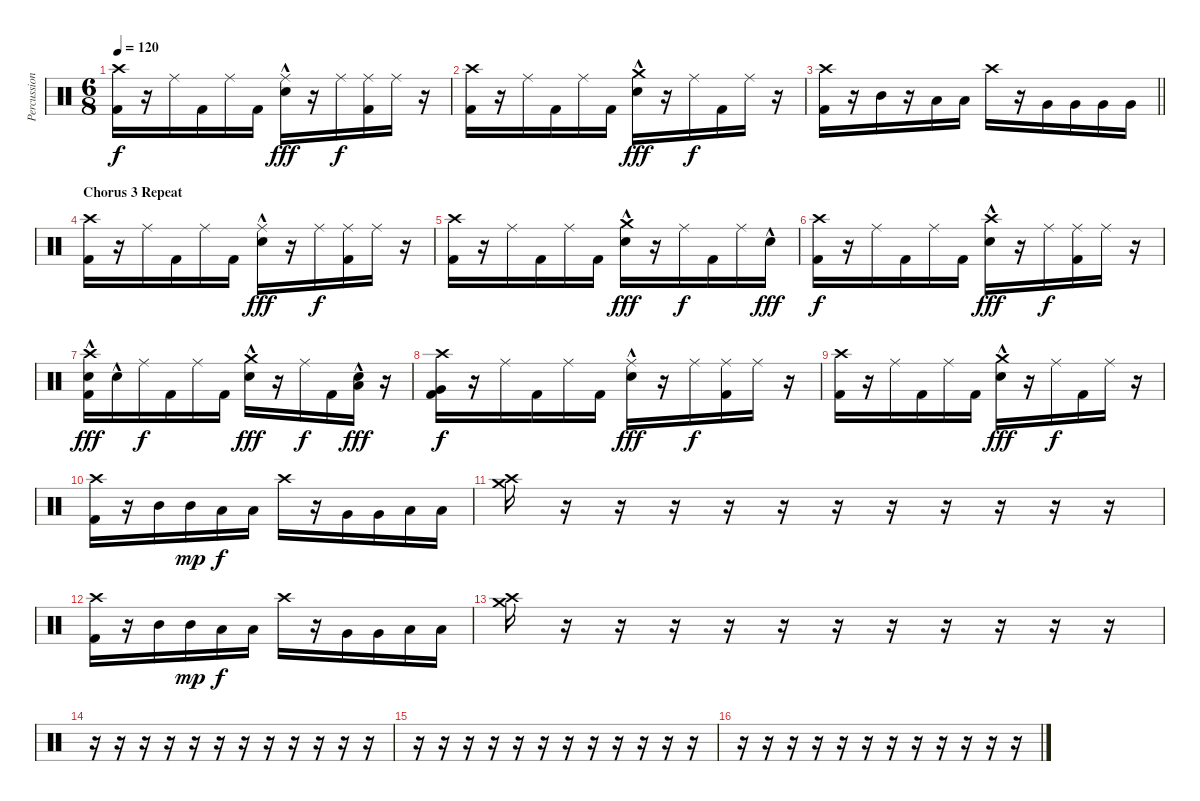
\track ("Percussion" "Percussion") {instrument percussion}
\staff {score}
\articulation defaults
\ts (6 8)
\tempo 120
\clef neutral
\ks c
("Kick (hit) 2" "Crash high (hit)").16{dy f} r.16 "Ride (middle)".16 "Kick (hit) 2".16 "Ride (middle)".16 "Kick (hit) 2".16 ("Snare (hit) 2"{hac} "Ride (middle)").16{dy fff} r.16 "Ride (middle)".16{dy f} ("Kick (hit) 2" "Ride (middle)").16 "Ride (middle)".16 r.16 |
("Kick (hit) 2" "Crash high (hit)").16 r.16 "Ride (middle)".16 "Kick (hit) 2".16 "Ride (middle)".16 "Kick (hit) 2".16 ("Snare (hit) 2"{hac} "Crash medium (hit)").16{dy fff} r.16 "Ride (middle)".16{dy f} "Kick (hit) 2".16 "Ride (middle)".16 r.16 |
\barLineRight lightlight
("Kick (hit) 2" "Crash high (hit)").16 r.16 "Mid Tom (hit)".16 r.16 "Low Tom (hit)".16 "Low Tom (hit)".16 "Crash high (hit)".16 r.16 "Very Low Tom (hit)".16 "Very Low Tom (hit)".16 "Very Low Tom (hit)".16 "Very Low Tom (hit)".16 |
\section ("" "Chorus 3 Repeat")
("Kick (hit) 2" "Crash high (hit)").16 r.16 "Ride (middle)".16 "Kick (hit) 2".16 "Ride (middle)".16 "Kick (hit) 2".16 ("Snare (hit) 2"{hac} "Ride (middle)").16{dy fff} r.16 "Ride (middle)".16{dy f} ("Kick (hit) 2" "Ride (middle)").16 "Ride (middle)".16 r.16 |
("Kick (hit) 2" "Crash high (hit)").16 r.16 "Ride (middle)".16 "Kick (hit) 2".16 "Ride (middle)".16 "Kick (hit) 2".16 ("Snare (hit) 2"{hac} "Crash medium (hit)").16{dy fff} r.16 "Ride (middle)".16{dy f} "Kick (hit) 2".16 "Ride (middle)".16 "Snare (hit) 2"{hac}.16{dy fff} |
("Kick (hit) 2" "Crash high (hit)").16{dy f} r.16 "Ride (middle)".16 "Kick (hit) 2".16 "Ride (middle)".16 "Kick (hit) 2".16 ("Snare (hit) 2"{hac} "Crash high (hit)").16{dy fff} r.16 "Ride (middle)".16{dy f} ("Kick (hit) 2" "Ride (middle)").16 "Ride (middle)".16 r.16 |
("Kick (hit) 2" "Snare (hit) 2"{hac} "Crash high (hit)").16{dy fff} "Snare (hit) 2"{hac}.16 "Ride (middle)".16{dy f} "Kick (hit) 2".16 "Ride (middle)".16 "Kick (hit) 2".16 ("Snare (hit) 2"{hac} "Crash medium (hit)").16{dy fff} r.16 "Ride (middle)".16{dy f} "Kick (hit) 2".16 ("Snare (hit) 2"{hac} "Low Tom (hit)"{hac}).16{dy fff} r.16 |
("Kick (hit) 2" "Very Low Tom (hit)" "Crash high (hit)").16{dy f} r.16 "Ride (middle)".16 "Kick (hit) 2".16 "Ride (middle)".16 "Kick (hit) 2".16 ("Snare (hit) 2"{hac} "Ride (middle)").16{dy fff} r.16 "Ride (middle)".16{dy f} ("Kick (hit) 2" "Ride (middle)").16 "Ride (middle)".16 r.16 |
("Kick (hit) 2" "Crash high (hit)").16 r.16 "Ride (middle)".16 "Kick (hit) 2".16 "Ride (middle)".16 "Kick (hit) 2".16 ("Snare (hit) 2"{hac} "Crash medium (hit)").16{dy fff} r.16 "Ride (middle)".16{dy f} "Kick (hit) 2".16 "Ride (middle)".16 r.16 |
("Kick (hit) 2" "Crash high (hit)").16 r.16 "Mid Tom (hit)".16 "Mid Tom (hit)".16{dy mp} "Low Tom (hit)".16{dy f} "Low Tom (hit)".16 "Crash high (hit)".16 r.16 "Very Low Tom (hit)".16 "Very Low Tom (hit)".16 "Low Floor Tom (hit)".16 "Low Floor Tom (hit)".16 |
("Crash medium (hit)" "Crash high (hit)").16 r.16 r.16 r.16 r.16 r.16 r.16 r.16 r.16 r.16 r.16 r.16 |
("Kick (hit) 2" "Crash high (hit)").16 r.16 "Mid Tom (hit)".16 "Mid Tom (hit)".16{dy mp} "Low Tom (hit)".16{dy f} "Low Tom (hit)".16 "Crash high (hit)".16 r.16 "Very Low Tom (hit)".16 "Very Low Tom (hit)".16 "Low Floor Tom (hit)".16 "Low Floor Tom (hit)".16 |
("Crash medium (hit)" "Crash high (hit)").16 r.16 r.16 r.16 r.16 r.16 r.16 r.16 r.16 r.16 r.16 r.16 |
r.16 r.16 r.16 r.16 r.16 r.16 r.16 r.16 r.16 r.16 r.16 r.16 |
r.16 r.16 r.16 r.16 r.16 r.16 r.16 r.16 r.16 r.16 r.16 r.16 |
r.16 r.16 r.16 r.16 r.16 r.16 r.16 r.16 r.16 r.16 r.16 r.16
